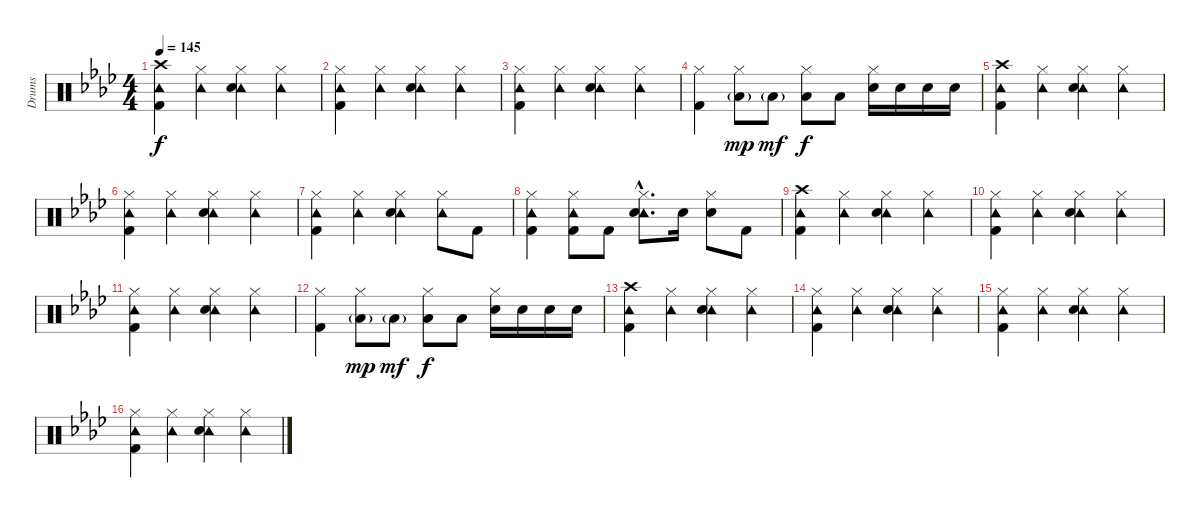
\track ("Drums" "Drums") {instrument percussion}
\staff {score}
\articulation defaults
\ts (4 4)
\tempo 145
\clef neutral
\ks ab
("Crash high (hit)" "Tambourine (hit)" "Kick (hit) 2").4{dy f} ("Tambourine (hit)" "Hi-Hat (closed)").4 ("Tambourine (hit)" "Hi-Hat (closed)" "Electric Snare (hit)").4 ("Tambourine (hit)" "Hi-Hat (closed)").4 |
("Tambourine (hit)" "Hi-Hat (closed)" "Kick (hit) 2").4 ("Tambourine (hit)" "Hi-Hat (closed)").4 ("Tambourine (hit)" "Hi-Hat (closed)" "Electric Snare (hit)").4 ("Tambourine (hit)" "Hi-Hat (closed)").4 |
("Tambourine (hit)" "Hi-Hat (closed)" "Kick (hit) 2").4 ("Tambourine (hit)" "Hi-Hat (closed)").4 ("Tambourine (hit)" "Hi-Hat (closed)" "Electric Snare (hit)").4 ("Tambourine (hit)" "Hi-Hat (closed)").4 |
("Hi-Hat (closed)" "Kick (hit) 2").4 ("Hi-Hat (closed)" "Low Tom (hit)"{g}).8{dy mp} "Low Tom (hit)"{g}.8{dy mf} ("Hi-Hat (closed)" "Low Tom (hit)").8{dy f} "Low Tom (hit)".8 ("Hi-Hat (closed)" "Electric Snare (hit)").16 "Electric Snare (hit)".16 "Electric Snare (hit)".16 "Electric Snare (hit)".16 |
("Crash high (hit)" "Tambourine (hit)" "Kick (hit) 2").4 ("Tambourine (hit)" "Hi-Hat (closed)").4 ("Tambourine (hit)" "Hi-Hat (closed)" "Electric Snare (hit)").4 ("Tambourine (hit)" "Hi-Hat (closed)").4 |
("Tambourine (hit)" "Hi-Hat (closed)" "Kick (hit) 2").4 ("Tambourine (hit)" "Hi-Hat (closed)").4 ("Tambourine (hit)" "Hi-Hat (closed)" "Electric Snare (hit)").4 ("Tambourine (hit)" "Hi-Hat (closed)").4 |
("Tambourine (hit)" "Hi-Hat (closed)" "Kick (hit) 2").4 ("Tambourine (hit)" "Hi-Hat (closed)").4 ("Tambourine (hit)" "Hi-Hat (closed)" "Electric Snare (hit)").4 ("Tambourine (hit)" "Hi-Hat (closed)").8 "Kick (hit) 2".8 |
("Tambourine (hit)" "Hi-Hat (closed)" "Kick (hit) 2").4 ("Tambourine (hit)" "Hi-Hat (closed)" "Kick (hit) 2").8 "Kick (hit) 2".8 ("Tambourine (hit)"{hac} "Hi-Hat (closed)"{hac} "Electric Snare (hit)"{hac}).8{d} "Electric Snare (hit)".16 ("Hi-Hat (closed)" "Electric Snare (hit)").8 "Kick (hit) 2".8 |
("Crash high (hit)" "Tambourine (hit)" "Kick (hit) 2").4 ("Tambourine (hit)" "Hi-Hat (closed)").4 ("Tambourine (hit)" "Hi-Hat (closed)" "Electric Snare (hit)").4 ("Tambourine (hit)" "Hi-Hat (closed)").4 |
("Tambourine (hit)" "Hi-Hat (closed)" "Kick (hit) 2").4 ("Tambourine (hit)" "Hi-Hat (closed)").4 ("Tambourine (hit)" "Hi-Hat (closed)" "Electric Snare (hit)").4 ("Tambourine (hit)" "Hi-Hat (closed)").4 |
("Tambourine (hit)" "Hi-Hat (closed)" "Kick (hit) 2").4 ("Tambourine (hit)" "Hi-Hat (closed)").4 ("Tambourine (hit)" "Hi-Hat (closed)" "Electric Snare (hit)").4 ("Tambourine (hit)" "Hi-Hat (closed)").4 |
("Hi-Hat (closed)" "Kick (hit) 2").4 ("Hi-Hat (closed)" "Low Tom (hit)"{g}).8{dy mp} "Low Tom (hit)"{g}.8{dy mf} ("Hi-Hat (closed)" "Low Tom (hit)").8{dy f} "Low Tom (hit)".8 ("Hi-Hat (closed)" "Electric Snare (hit)").16 "Electric Snare (hit)".16 "Electric Snare (hit)".16 "Electric Snare (hit)".16 |
("Crash high (hit)" "Tambourine (hit)" "Kick (hit) 2").4 ("Tambourine (hit)" "Hi-Hat (closed)").4 ("Tambourine (hit)" "Hi-Hat (closed)" "Electric Snare (hit)").4 ("Tambourine (hit)" "Hi-Hat (closed)").4 |
("Tambourine (hit)" "Hi-Hat (closed)" "Kick (hit) 2").4 ("Tambourine (hit)" "Hi-Hat (closed)").4 ("Tambourine (hit)" "Hi-Hat (closed)" "Electric Snare (hit)").4 ("Tambourine (hit)" "Hi-Hat (closed)").4 |
("Tambourine (hit)" "Hi-Hat (closed)" "Kick (hit) 2").4 ("Tambourine (hit)" "Hi-Hat (closed)").4 ("Tambourine (hit)" "Hi-Hat (closed)" "Electric Snare (hit)").4 ("Tambourine (hit)" "Hi-Hat (closed)").4 |
("Tambourine (hit)" "Hi-Hat (closed)" "Kick (hit) 2").4 ("Tambourine (hit)" "Hi-Hat (closed)").4 ("Tambourine (hit)" "Hi-Hat (closed)" "Electric Snare (hit)").4 ("Tambourine (hit)" "Hi-Hat (closed)").4
